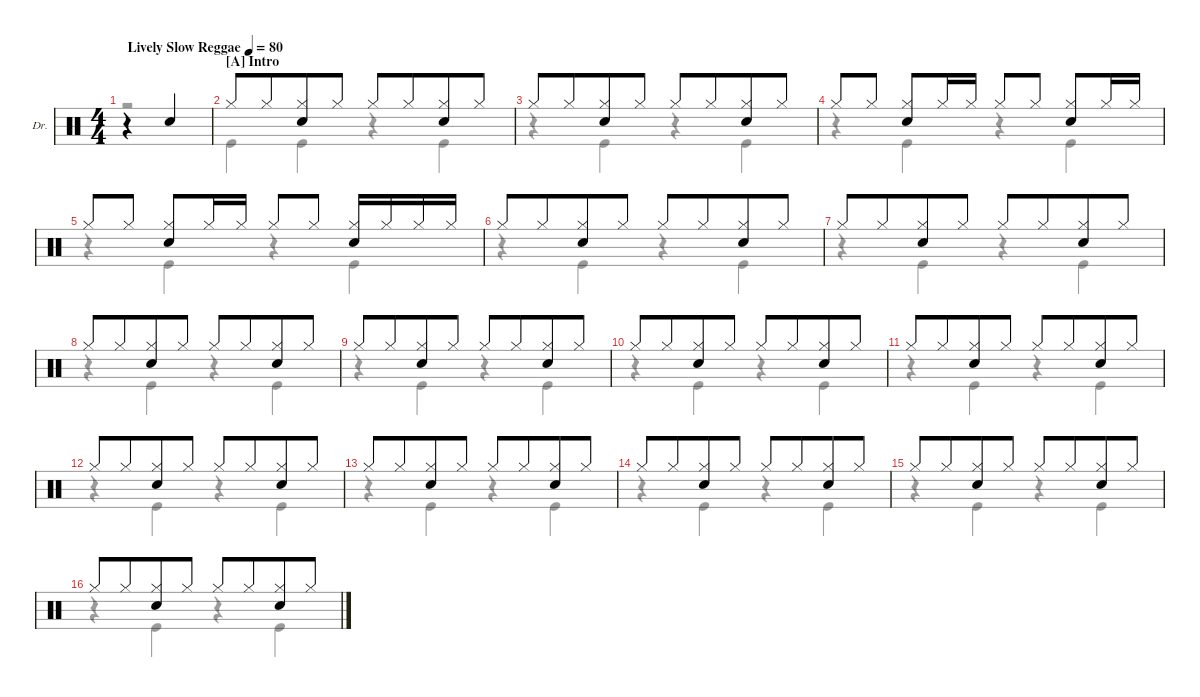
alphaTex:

\defaultSystemsLayout 4
\hideDynamics
\bracketExtendMode groupsimilarinstruments
\firstSystemTrackNameOrientation horizontal
\otherSystemsTrackNameOrientation horizontal
\track ("Drums" "Dr.") {multiBarRest instrument percussion}
\staff {score}
\articulation defaults
\voice
\ts (4 4)
\ac
\tempo (80 "Lively Slow Reggae")
\clef neutral
\ks c
r.4{dy mf} "Snare (hit) 2".4 |
\section ("A" "Intro")
"Hi-Hat (closed)".8 "Hi-Hat (closed)".8{beam merge} ("Hi-Hat (closed)" "Snare (hit) 2").8 "Hi-Hat (closed)".8 "Hi-Hat (closed)".8 "Hi-Hat (closed)".8{beam merge} ("Hi-Hat (closed)" "Snare (hit) 2").8 "Hi-Hat (closed)".8 |
"Hi-Hat (closed)".8 "Hi-Hat (closed)".8{beam merge} ("Hi-Hat (closed)" "Snare (hit) 2").8 "Hi-Hat (closed)".8 "Hi-Hat (closed)".8 "Hi-Hat (closed)".8{beam merge} ("Hi-Hat (closed)" "Snare (hit) 2").8 "Hi-Hat (closed)".8 |
"Hi-Hat (closed)".8 "Hi-Hat (closed)".8 ("Hi-Hat (closed)" "Snare (hit) 2").8 "Hi-Hat (closed)".16 "Hi-Hat (closed)".16 "Hi-Hat (closed)".8 "Hi-Hat (closed)".8 ("Hi-Hat (closed)" "Snare (hit) 2").8 "Hi-Hat (closed)".16 "Hi-Hat (closed)".16 |
"Hi-Hat (closed)".8 "Hi-Hat (closed)".8 ("Hi-Hat (closed)" "Snare (hit) 2").8 "Hi-Hat (closed)".16 "Hi-Hat (closed)".16 "Hi-Hat (closed)".8 "Hi-Hat (closed)".8 ("Hi-Hat (closed)" "Snare (hit) 2").16 "Hi-Hat (closed)".16 "Hi-Hat (closed)".16 "Hi-Hat (closed)".16 |
"Hi-Hat (closed)".8 "Hi-Hat (closed)".8{beam merge} ("Hi-Hat (closed)" "Snare (hit) 2").8 "Hi-Hat (closed)".8 "Hi-Hat (closed)".8 "Hi-Hat (closed)".8{beam merge} ("Hi-Hat (closed)" "Snare (hit) 2").8 "Hi-Hat (closed)".8 |
"Hi-Hat (closed)".8 "Hi-Hat (closed)".8{beam merge} ("Hi-Hat (closed)" "Snare (hit) 2").8 "Hi-Hat (closed)".8 "Hi-Hat (closed)".8 "Hi-Hat (closed)".8{beam merge} ("Hi-Hat (closed)" "Snare (hit) 2").8 "Hi-Hat (closed)".8 |
"Hi-Hat (closed)".8 "Hi-Hat (closed)".8{beam merge} ("Hi-Hat (closed)" "Snare (hit) 2").8 "Hi-Hat (closed)".8 "Hi-Hat (closed)".8 "Hi-Hat (closed)".8{beam merge} ("Hi-Hat (closed)" "Snare (hit) 2").8 "Hi-Hat (closed)".8 |
"Hi-Hat (closed)".8 "Hi-Hat (closed)".8{beam merge} ("Hi-Hat (closed)" "Snare (hit) 2").8 "Hi-Hat (closed)".8 "Hi-Hat (closed)".8 "Hi-Hat (closed)".8{beam merge} ("Hi-Hat (closed)" "Snare (hit) 2").8 "Hi-Hat (closed)".8 |
"Hi-Hat (closed)".8 "Hi-Hat (closed)".8{beam merge} ("Hi-Hat (closed)" "Snare (hit) 2").8 "Hi-Hat (closed)".8 "Hi-Hat (closed)".8 "Hi-Hat (closed)".8{beam merge} ("Hi-Hat (closed)" "Snare (hit) 2").8 "Hi-Hat (closed)".8 |
"Hi-Hat (closed)".8 "Hi-Hat (closed)".8{beam merge} ("Hi-Hat (closed)" "Snare (hit) 2").8 "Hi-Hat (closed)".8 "Hi-Hat (closed)".8 "Hi-Hat (closed)".8{beam merge} ("Hi-Hat (closed)" "Snare (hit) 2").8 "Hi-Hat (closed)".8 |
"Hi-Hat (closed)".8 "Hi-Hat (closed)".8{beam merge} ("Hi-Hat (closed)" "Snare (hit) 2").8 "Hi-Hat (closed)".8 "Hi-Hat (closed)".8 "Hi-Hat (closed)".8{beam merge} ("Hi-Hat (closed)" "Snare (hit) 2").8 "Hi-Hat (closed)".8 |
"Hi-Hat (closed)".8 "Hi-Hat (closed)".8{beam merge} ("Hi-Hat (closed)" "Snare (hit) 2").8 "Hi-Hat (closed)".8 "Hi-Hat (closed)".8 "Hi-Hat (closed)".8{beam merge} ("Hi-Hat (closed)" "Snare (hit) 2").8 "Hi-Hat (closed)".8 |
"Hi-Hat (closed)".8 "Hi-Hat (closed)".8{beam merge} ("Hi-Hat (closed)" "Snare (hit) 2").8 "Hi-Hat (closed)".8 "Hi-Hat (closed)".8 "Hi-Hat (closed)".8{beam merge} ("Hi-Hat (closed)" "Snare (hit) 2").8 "Hi-Hat (closed)".8 |
"Hi-Hat (closed)".8 "Hi-Hat (closed)".8{beam merge} ("Hi-Hat (closed)" "Snare (hit) 2").8 "Hi-Hat (closed)".8 "Hi-Hat (closed)".8 "Hi-Hat (closed)".8{beam merge} ("Hi-Hat (closed)" "Snare (hit) 2").8 "Hi-Hat (closed)".8 |
"Hi-Hat (closed)".8 "Hi-Hat (closed)".8{beam merge} ("Hi-Hat (closed)" "Snare (hit) 2").8 "Hi-Hat (closed)".8 "Hi-Hat (closed)".8 "Hi-Hat (closed)".8{beam merge} ("Hi-Hat (closed)" "Snare (hit) 2").8 "Hi-Hat (closed)".8
\voice
\clef neutral
\ottava regular
\simile none
\ks c
r.2{dy mf} |
"Kick (hit)".4 "Kick (hit)".4 r.4 "Kick (hit)".4 |
r.4 "Kick (hit)".4 r.4 "Kick (hit)".4 |
r.4 "Kick (hit)".4 r.4 "Kick (hit)".4 |
r.4 "Kick (hit)".4 r.4 "Kick (hit)".4 |
r.4 "Kick (hit)".4 r.4 "Kick (hit)".4 |
r.4 "Kick (hit)".4 r.4 "Kick (hit)".4 |
r.4 "Kick (hit)".4 r.4 "Kick (hit)".4 |
r.4 "Kick (hit)".4 r.4 "Kick (hit)".4 |
r.4 "Kick (hit)".4 r.4 "Kick (hit)".4 |
r.4 "Kick (hit)".4 r.4 "Kick (hit)".4 |
r.4 "Kick (hit)".4 r.4 "Kick (hit)".4 |
r.4 "Kick (hit)".4 r.4 "Kick (hit)".4 |
r.4 "Kick (hit)".4 r.4 "Kick (hit)".4 |
r.4 "Kick (hit)".4 r.4 "Kick (hit)".4 |
r.4 "Kick (hit)".4 r.4 "Kick (hit)".4
